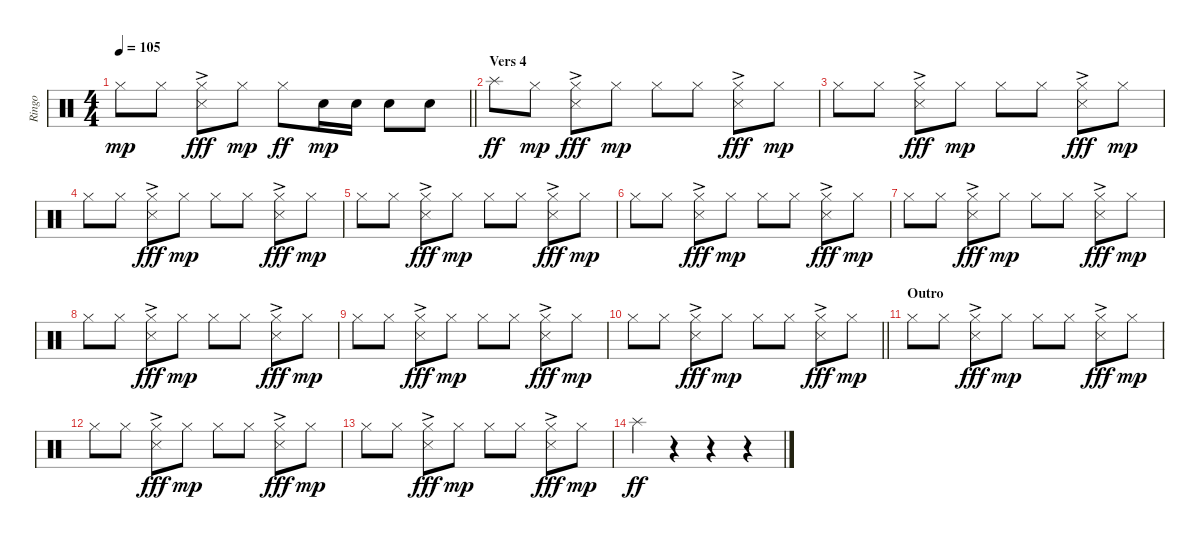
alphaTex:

\track ("Ringo" "Ringo") {instrument percussion}
\staff {score}
\articulation defaults
\ts (4 4)
\tempo 105
\clef neutral
\barLineRight lightlight
\ks c "Hi-Hat (closed)".8{dy mp} "Hi-Hat (closed)".8
("Hi-Hat (closed)" "Metronome (hit)"{ac}).8{dy fff} "Hi-Hat (closed)".8{dy mp} "Hi-Hat (closed)".8{dy ff} "Snare (hit) 2".16{dy mp} "Snare (hit) 2".16 "Snare (hit) 2".8 "Snare (hit) 2".8 |
\section ("" "Vers 4")
"Splash (hit)".8{dy ff} "Hi-Hat (closed)".8{dy mp} ("Hi-Hat (closed)" "Metronome (hit)"{ac}).8{dy fff} "Hi-Hat (closed)".8{dy mp} "Hi-Hat (closed)".8 "Hi-Hat (closed)".8 ("Hi-Hat (closed)" "Metronome (hit)"{ac}).8{dy fff} "Hi-Hat (closed)".8{dy mp} |
"Hi-Hat (closed)".8 "Hi-Hat (closed)".8 ("Hi-Hat (closed)" "Metronome (hit)"{ac}).8{dy fff} "Hi-Hat (closed)".8{dy mp} "Hi-Hat (closed)".8 "Hi-Hat (closed)".8 ("Hi-Hat (closed)" "Metronome (hit)"{ac}).8{dy fff} "Hi-Hat (closed)".8{dy mp} |
"Hi-Hat (closed)".8 "Hi-Hat (closed)".8 ("Hi-Hat (closed)" "Metronome (hit)"{ac}).8{dy fff} "Hi-Hat (closed)".8{dy mp} "Hi-Hat (closed)".8 "Hi-Hat (closed)".8 ("Hi-Hat (closed)" "Metronome (hit)"{ac}).8{dy fff} "Hi-Hat (closed)".8{dy mp} |
"Hi-Hat (closed)".8 "Hi-Hat (closed)".8 ("Hi-Hat (closed)" "Metronome (hit)"{ac}).8{dy fff} "Hi-Hat (closed)".8{dy mp} "Hi-Hat (closed)".8 "Hi-Hat (closed)".8 ("Hi-Hat (closed)" "Metronome (hit)"{ac}).8{dy fff} "Hi-Hat (closed)".8{dy mp} |
"Hi-Hat (closed)".8 "Hi-Hat (closed)".8 ("Hi-Hat (closed)" "Metronome (hit)"{ac}).8{dy fff} "Hi-Hat (closed)".8{dy mp} "Hi-Hat (closed)".8 "Hi-Hat (closed)".8 ("Hi-Hat (closed)" "Metronome (hit)"{ac}).8{dy fff} "Hi-Hat (closed)".8{dy mp} |
"Hi-Hat (closed)".8 "Hi-Hat (closed)".8 ("Hi-Hat (closed)" "Metronome (hit)"{ac}).8{dy fff} "Hi-Hat (closed)".8{dy mp} "Hi-Hat (closed)".8 "Hi-Hat (closed)".8 ("Hi-Hat (closed)" "Metronome (hit)"{ac}).8{dy fff} "Hi-Hat (closed)".8{dy mp} |
"Hi-Hat (closed)".8 "Hi-Hat (closed)".8 ("Hi-Hat (closed)" "Metronome (hit)"{ac}).8{dy fff} "Hi-Hat (closed)".8{dy mp} "Hi-Hat (closed)".8 "Hi-Hat (closed)".8 ("Hi-Hat (closed)" "Metronome (hit)"{ac}).8{dy fff} "Hi-Hat (closed)".8{dy mp} |
"Hi-Hat (closed)".8 "Hi-Hat (closed)".8 ("Hi-Hat (closed)" "Metronome (hit)"{ac}).8{dy fff} "Hi-Hat (closed)".8{dy mp} "Hi-Hat (closed)".8 "Hi-Hat (closed)".8 ("Hi-Hat (closed)" "Metronome (hit)"{ac}).8{dy fff} "Hi-Hat (closed)".8{dy mp} |
\barLineRight lightlight "Hi-Hat (closed)".8 "Hi-Hat (closed)".8
("Hi-Hat (closed)" "Metronome (hit)"{ac}).8{dy fff} "Hi-Hat (closed)".8{dy mp} "Hi-Hat (closed)".8 "Hi-Hat (closed)".8 ("Hi-Hat (closed)" "Metronome (hit)"{ac}).8{dy fff} "Hi-Hat (closed)".8{dy mp} |
\section ("" "Outro")
"Hi-Hat (closed)".8 "Hi-Hat (closed)".8 ("Hi-Hat (closed)" "Metronome (hit)"{ac}).8{dy fff} "Hi-Hat (closed)".8{dy mp} "Hi-Hat (closed)".8 "Hi-Hat (closed)".8 ("Hi-Hat (closed)" "Metronome (hit)"{ac}).8{dy fff} "Hi-Hat (closed)".8{dy mp} |
"Hi-Hat (closed)".8 "Hi-Hat (closed)".8 ("Hi-Hat (closed)" "Metronome (hit)"{ac}).8{dy fff} "Hi-Hat (closed)".8{dy mp} "Hi-Hat (closed)".8 "Hi-Hat (closed)".8 ("Hi-Hat (closed)" "Metronome (hit)"{ac}).8{dy fff} "Hi-Hat (closed)".8{dy mp} |
"Hi-Hat (closed)".8 "Hi-Hat (closed)".8 ("Hi-Hat (closed)" "Metronome (hit)"{ac}).8{dy fff} "Hi-Hat (closed)".8{dy mp} "Hi-Hat (closed)".8 "Hi-Hat (closed)".8 ("Hi-Hat (closed)" "Metronome (hit)"{ac}).8{dy fff} "Hi-Hat (closed)".8{dy mp} |
"Splash (hit)".4{dy ff} r.4 r.4 r.4
